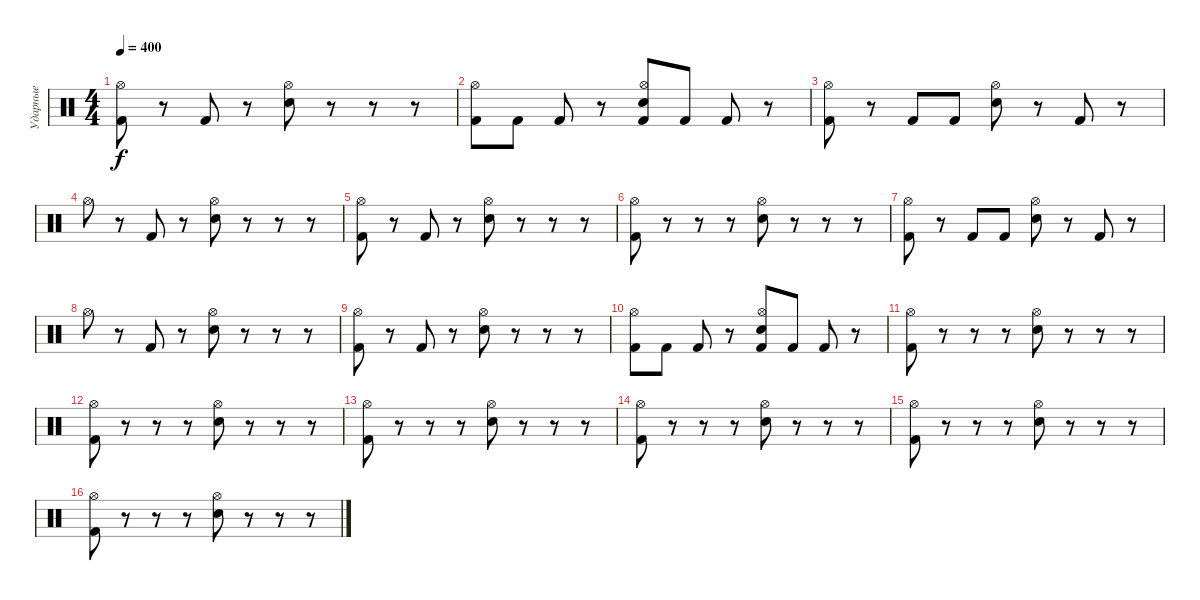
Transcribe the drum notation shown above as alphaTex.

\track ("Ударные" "Ударные") {instrument percussion}
\staff {score}
\articulation defaults
\ts (4 4)
\tempo 400
\clef neutral
\ks c
("Kick (hit) 2" "Hi-Hat (open)").8{dy f} r.8 "Kick (hit) 2".8 r.8 ("Electric Snare (hit)" "Hi-Hat (open)").8 r.8 r.8 r.8 |
("Kick (hit) 2" "Hi-Hat (open)").8 "Kick (hit) 2".8 "Kick (hit) 2".8 r.8 ("Electric Snare (hit)" "Kick (hit) 2" "Hi-Hat (open)").8 "Kick (hit) 2".8 "Kick (hit) 2".8 r.8 |
("Kick (hit) 2" "Hi-Hat (open)").8 r.8 "Kick (hit) 2".8 "Kick (hit) 2".8 ("Electric Snare (hit)" "Hi-Hat (open)").8 r.8 "Kick (hit) 2".8 r.8 |
"Hi-Hat (open)".8 r.8 "Kick (hit) 2".8 r.8 ("Electric Snare (hit)" "Hi-Hat (open)").8 r.8 r.8 r.8 |
("Kick (hit) 2" "Hi-Hat (open)").8 r.8 "Kick (hit) 2".8 r.8 ("Electric Snare (hit)" "Hi-Hat (open)").8 r.8 r.8 r.8 |
("Kick (hit) 2" "Hi-Hat (open)").8 r.8 r.8 r.8 ("Electric Snare (hit)" "Hi-Hat (open)").8 r.8 r.8 r.8 |
("Kick (hit) 2" "Hi-Hat (open)").8 r.8 "Kick (hit) 2".8 "Kick (hit) 2".8 ("Electric Snare (hit)" "Hi-Hat (open)").8 r.8 "Kick (hit) 2".8 r.8 |
"Hi-Hat (open)".8 r.8 "Kick (hit) 2".8 r.8 ("Electric Snare (hit)" "Hi-Hat (open)").8 r.8 r.8 r.8 |
("Kick (hit) 2" "Hi-Hat (open)").8 r.8 "Kick (hit) 2".8 r.8 ("Electric Snare (hit)" "Hi-Hat (open)").8 r.8 r.8 r.8 |
("Kick (hit) 2" "Hi-Hat (open)").8 "Kick (hit) 2".8 "Kick (hit) 2".8 r.8 ("Electric Snare (hit)" "Kick (hit) 2" "Hi-Hat (open)").8 "Kick (hit) 2".8 "Kick (hit) 2".8 r.8 |
("Kick (hit) 2" "Hi-Hat (open)").8 r.8 r.8 r.8 ("Electric Snare (hit)" "Hi-Hat (open)").8 r.8 r.8 r.8 |
("Kick (hit) 2" "Hi-Hat (open)").8 r.8 r.8 r.8 ("Electric Snare (hit)" "Hi-Hat (open)").8 r.8 r.8 r.8 |
("Kick (hit) 2" "Hi-Hat (open)").8 r.8 r.8 r.8 ("Electric Snare (hit)" "Hi-Hat (open)").8 r.8 r.8 r.8 |
("Kick (hit) 2" "Hi-Hat (open)").8 r.8 r.8 r.8 ("Electric Snare (hit)" "Hi-Hat (open)").8 r.8 r.8 r.8 |
("Kick (hit) 2" "Hi-Hat (open)").8 r.8 r.8 r.8 ("Electric Snare (hit)" "Hi-Hat (open)").8 r.8 r.8 r.8 |
("Kick (hit) 2" "Hi-Hat (open)").8 r.8 r.8 r.8 ("Electric Snare (hit)" "Hi-Hat (open)").8 r.8 r.8 r.8
